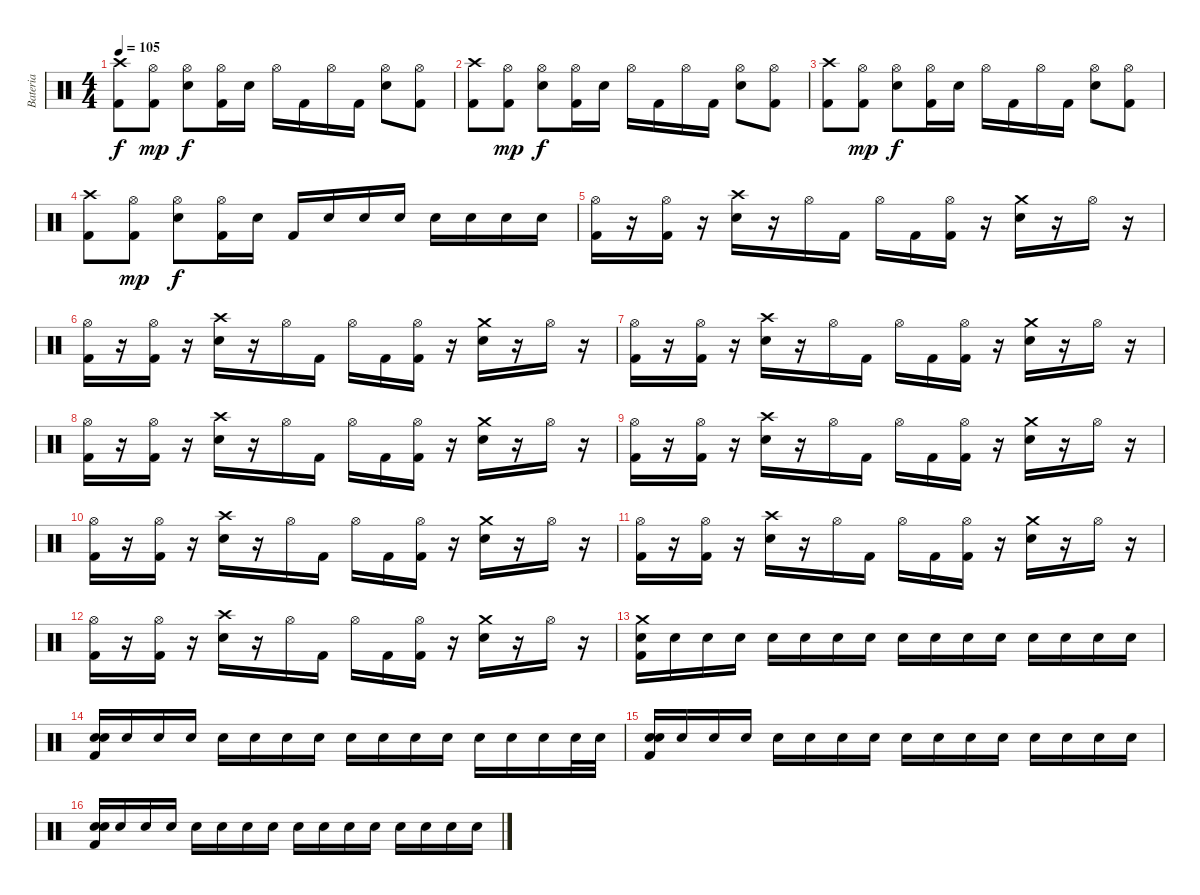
\track ("Bateria" "Bateria") {instrument percussion}
\staff {score}
\articulation defaults
\ts (4 4)
\tempo 105
\clef neutral
\ks c
("Kick (hit) 2" "Crash high (hit)").8{dy f} ("Kick (hit) 2" "Hi-Hat (open)").8{dy mp} ("Snare (hit) 2" "Hi-Hat (open)").8{dy f} ("Kick (hit) 2" "Hi-Hat (open)").16 "Snare (hit) 2".16 "Hi-Hat (open)".16 "Kick (hit) 2".16 "Hi-Hat (open)".16 "Kick (hit) 2".16 ("Snare (hit) 2" "Hi-Hat (open)").8 ("Kick (hit) 2" "Hi-Hat (open)").8 |
("Kick (hit) 2" "Crash high (hit)").8 ("Kick (hit) 2" "Hi-Hat (open)").8{dy mp} ("Snare (hit) 2" "Hi-Hat (open)").8{dy f} ("Kick (hit) 2" "Hi-Hat (open)").16 "Snare (hit) 2".16 "Hi-Hat (open)".16 "Kick (hit) 2".16 "Hi-Hat (open)".16 "Kick (hit) 2".16 ("Snare (hit) 2" "Hi-Hat (open)").8 ("Kick (hit) 2" "Hi-Hat (open)").8 |
("Kick (hit) 2" "Crash high (hit)").8 ("Kick (hit) 2" "Hi-Hat (open)").8{dy mp} ("Snare (hit) 2" "Hi-Hat (open)").8{dy f} ("Kick (hit) 2" "Hi-Hat (open)").16 "Snare (hit) 2".16 "Hi-Hat (open)".16 "Kick (hit) 2".16 "Hi-Hat (open)".16 "Kick (hit) 2".16 ("Snare (hit) 2" "Hi-Hat (open)").8 ("Kick (hit) 2" "Hi-Hat (open)").8 |
("Kick (hit) 2" "Crash high (hit)").8 ("Kick (hit) 2" "Hi-Hat (open)").8{dy mp} ("Snare (hit) 2" "Hi-Hat (open)").8{dy f} ("Kick (hit) 2" "Hi-Hat (open)").16 "Snare (hit) 2".16 "Kick (hit) 2".16 "Snare (hit) 2".16 "Snare (hit) 2".16 "Snare (hit) 2".16 "Snare (hit) 2".16 "Snare (hit) 2".16 "Snare (hit) 2".16 "Snare (hit) 2".16 |
("Kick (hit) 2" "Hi-Hat (open)").16 r.16 ("Kick (hit) 2" "Hi-Hat (open)").16 r.16 ("Snare (hit) 2" "Crash high (hit)").16 r.16 "Hi-Hat (open)".16 "Kick (hit) 2".16 "Hi-Hat (open)".16 "Kick (hit) 2".16 ("Kick (hit) 2" "Hi-Hat (open)").16 r.16 ("Snare (hit) 2" "Crash medium (hit)").16 r.16 "Hi-Hat (open)".16 r.16 |
("Kick (hit) 2" "Hi-Hat (open)").16 r.16 ("Kick (hit) 2" "Hi-Hat (open)").16 r.16 ("Snare (hit) 2" "Crash high (hit)").16 r.16 "Hi-Hat (open)".16 "Kick (hit) 2".16 "Hi-Hat (open)".16 "Kick (hit) 2".16 ("Kick (hit) 2" "Hi-Hat (open)").16 r.16 ("Snare (hit) 2" "Crash medium (hit)").16 r.16 "Hi-Hat (open)".16 r.16 |
("Kick (hit) 2" "Hi-Hat (open)").16 r.16 ("Kick (hit) 2" "Hi-Hat (open)").16 r.16 ("Snare (hit) 2" "Crash high (hit)").16 r.16 "Hi-Hat (open)".16 "Kick (hit) 2".16 "Hi-Hat (open)".16 "Kick (hit) 2".16 ("Kick (hit) 2" "Hi-Hat (open)").16 r.16 ("Snare (hit) 2" "Crash medium (hit)").16 r.16 "Hi-Hat (open)".16 r.16 |
("Kick (hit) 2" "Hi-Hat (open)").16 r.16 ("Kick (hit) 2" "Hi-Hat (open)").16 r.16 ("Snare (hit) 2" "Crash high (hit)").16 r.16 "Hi-Hat (open)".16 "Kick (hit) 2".16 "Hi-Hat (open)".16 "Kick (hit) 2".16 ("Kick (hit) 2" "Hi-Hat (open)").16 r.16 ("Snare (hit) 2" "Crash medium (hit)").16 r.16 "Hi-Hat (open)".16 r.16 |
("Kick (hit) 2" "Hi-Hat (open)").16 r.16 ("Kick (hit) 2" "Hi-Hat (open)").16 r.16 ("Snare (hit) 2" "Crash high (hit)").16 r.16 "Hi-Hat (open)".16 "Kick (hit) 2".16 "Hi-Hat (open)".16 "Kick (hit) 2".16 ("Kick (hit) 2" "Hi-Hat (open)").16 r.16 ("Snare (hit) 2" "Crash medium (hit)").16 r.16 "Hi-Hat (open)".16 r.16 |
("Kick (hit) 2" "Hi-Hat (open)").16 r.16 ("Kick (hit) 2" "Hi-Hat (open)").16 r.16 ("Snare (hit) 2" "Crash high (hit)").16 r.16 "Hi-Hat (open)".16 "Kick (hit) 2".16 "Hi-Hat (open)".16 "Kick (hit) 2".16 ("Kick (hit) 2" "Hi-Hat (open)").16 r.16 ("Snare (hit) 2" "Crash medium (hit)").16 r.16 "Hi-Hat (open)".16 r.16 |
("Kick (hit) 2" "Hi-Hat (open)").16 r.16 ("Kick (hit) 2" "Hi-Hat (open)").16 r.16 ("Snare (hit) 2" "Crash high (hit)").16 r.16 "Hi-Hat (open)".16 "Kick (hit) 2".16 "Hi-Hat (open)".16 "Kick (hit) 2".16 ("Kick (hit) 2" "Hi-Hat (open)").16 r.16 ("Snare (hit) 2" "Crash medium (hit)").16 r.16 "Hi-Hat (open)".16 r.16 |
("Kick (hit) 2" "Hi-Hat (open)").16 r.16 ("Kick (hit) 2" "Hi-Hat (open)").16 r.16 ("Snare (hit) 2" "Crash high (hit)").16 r.16 "Hi-Hat (open)".16 "Kick (hit) 2".16 "Hi-Hat (open)".16 "Kick (hit) 2".16 ("Kick (hit) 2" "Hi-Hat (open)").16 r.16 ("Snare (hit) 2" "Crash medium (hit)").16 r.16 "Hi-Hat (open)".16 r.16 |
("Snare (hit) 2" "Kick (hit) 2" "Crash medium (hit)").16{volume 10} "Snare (hit) 2".16 "Snare (hit) 2".16 "Snare (hit) 2".16 "Snare (hit) 2".16 "Snare (hit) 2".16 "Snare (hit) 2".16 "Snare (hit) 2".16 "Snare (hit) 2".16 "Snare (hit) 2".16 "Snare (hit) 2".16 "Snare (hit) 2".16 "Snare (hit) 2".16 "Snare (hit) 2".16 "Snare (hit) 2".16 "Snare (hit) 2".16 |
("Snare (hit) 2" "Kick (hit) 2" "Snare (hit) 2").16 "Snare (hit) 2".16 "Snare (hit) 2".16 "Snare (hit) 2".16 "Snare (hit) 2".16 "Snare (hit) 2".16 "Snare (hit) 2".16 "Snare (hit) 2".16 "Snare (hit) 2".16 "Snare (hit) 2".16 "Snare (hit) 2".16 "Snare (hit) 2".16 "Snare (hit) 2".16 "Snare (hit) 2".16 "Snare (hit) 2".16 "Snare (hit) 2".32 "Snare (hit) 2".32 |
("Snare (hit) 2" "Kick (hit) 2" "Snare (hit) 2").16 "Snare (hit) 2".16 "Snare (hit) 2".16 "Snare (hit) 2".16 "Snare (hit) 2".16 "Snare (hit) 2".16 "Snare (hit) 2".16 "Snare (hit) 2".16 "Snare (hit) 2".16 "Snare (hit) 2".16 "Snare (hit) 2".16 "Snare (hit) 2".16 "Snare (hit) 2".16 "Snare (hit) 2".16 "Snare (hit) 2".16 "Snare (hit) 2".16 |
("Snare (hit) 2" "Kick (hit) 2" "Snare (hit) 2").16 "Snare (hit) 2".16 "Snare (hit) 2".16 "Snare (hit) 2".16 "Snare (hit) 2".16 "Snare (hit) 2".16 "Snare (hit) 2".16 "Snare (hit) 2".16 "Snare (hit) 2".16 "Snare (hit) 2".16 "Snare (hit) 2".16 "Snare (hit) 2".16 "Snare (hit) 2".16 "Snare (hit) 2".16 "Snare (hit) 2".16 "Snare (hit) 2".16
